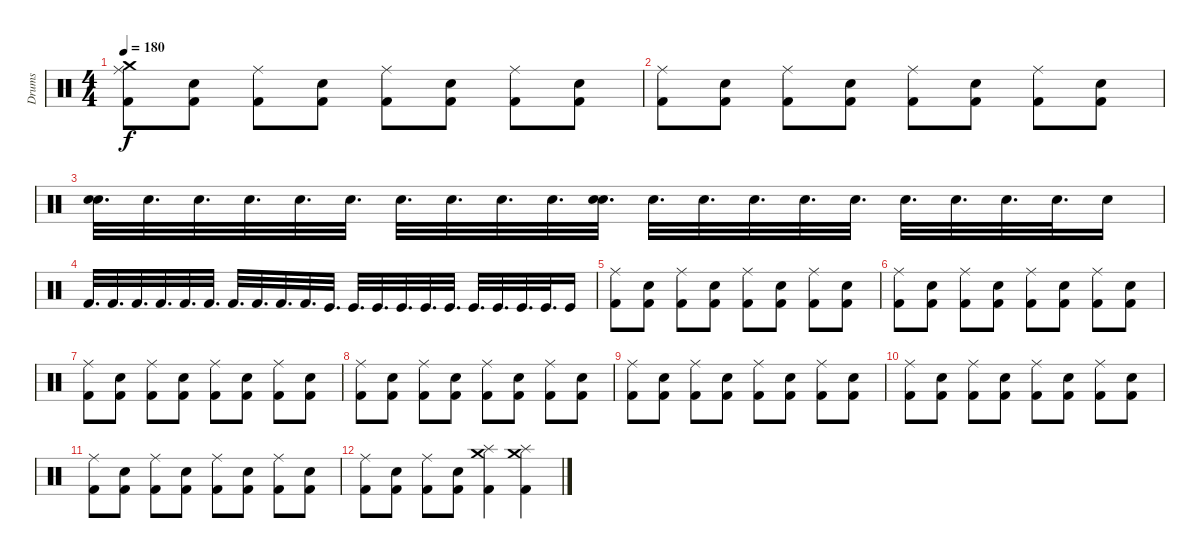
\track ("Drums" "Drums") {instrument percussion}
\staff {score}
\articulation defaults
\ts (4 4)
\tempo 180
\clef neutral
\ks c
("Crash medium (hit)" "Ride (middle)" "Kick (hit) 2").8{dy f} ("Kick (hit) 2" "Electric Snare (hit)").8 ("Ride (middle)" "Kick (hit) 2").8 ("Kick (hit) 2" "Electric Snare (hit)").8 ("Ride (middle)" "Kick (hit) 2").8 ("Kick (hit) 2" "Electric Snare (hit)").8 ("Ride (middle)" "Kick (hit) 2").8 ("Kick (hit) 2" "Electric Snare (hit)").8 |
("Ride (middle)" "Kick (hit) 2").8 ("Kick (hit) 2" "Electric Snare (hit)").8 ("Ride (middle)" "Kick (hit) 2").8 ("Kick (hit) 2" "Electric Snare (hit)").8 ("Ride (middle)" "Kick (hit) 2").8 ("Kick (hit) 2" "Electric Snare (hit)").8 ("Ride (middle)" "Kick (hit) 2").8 ("Kick (hit) 2" "Electric Snare (hit)").8 |
("Snare (hit) 2" "Electric Snare (hit)").32{d} "Electric Snare (hit)".32{d} "Electric Snare (hit)".32{d} "Electric Snare (hit)".32{d} "Electric Snare (hit)".32{d} "Electric Snare (hit)".32{d} "Electric Snare (hit)".32{d} "Electric Snare (hit)".32{d} "Electric Snare (hit)".32{d} "Electric Snare (hit)".32{d} ("Snare (hit) 2" "Electric Snare (hit)").32{d} "Electric Snare (hit)".32{d} "Electric Snare (hit)".32{d} "Electric Snare (hit)".32{d} "Electric Snare (hit)".32{d} "Electric Snare (hit)".32{d} "Electric Snare (hit)".32{d} "Electric Snare (hit)".32{d} "Electric Snare (hit)".32{d} "Electric Snare (hit)".32{d} "Electric Snare (hit)".16 |
"Kick (hit) 2".32{d} "Kick (hit) 2".32{d} "Kick (hit) 2".32{d} "Kick (hit) 2".32{d} "Kick (hit) 2".32{d} "Kick (hit) 2".32{d} "Kick (hit) 2".32{d} "Kick (hit) 2".32{d} "Kick (hit) 2".32{d} "Kick (hit) 2".32{d} "Kick (hit)".32{d} "Kick (hit)".32{d} "Kick (hit)".32{d} "Kick (hit)".32{d} "Kick (hit)".32{d} "Kick (hit)".32{d} "Kick (hit)".32{d} "Kick (hit)".32{d} "Kick (hit)".32{d} "Kick (hit)".32{d} "Kick (hit)".16 |
("Ride (middle)" "Kick (hit) 2").8 ("Kick (hit) 2" "Electric Snare (hit)").8 ("Ride (middle)" "Kick (hit) 2").8 ("Kick (hit) 2" "Electric Snare (hit)").8 ("Ride (middle)" "Kick (hit) 2").8 ("Kick (hit) 2" "Electric Snare (hit)").8 ("Ride (middle)" "Kick (hit) 2").8 ("Kick (hit) 2" "Electric Snare (hit)").8 |
("Ride (middle)" "Kick (hit) 2").8 ("Kick (hit) 2" "Electric Snare (hit)").8 ("Ride (middle)" "Kick (hit) 2").8 ("Kick (hit) 2" "Electric Snare (hit)").8 ("Ride (middle)" "Kick (hit) 2").8 ("Kick (hit) 2" "Electric Snare (hit)").8 ("Ride (middle)" "Kick (hit) 2").8 ("Kick (hit) 2" "Electric Snare (hit)").8 |
("Ride (middle)" "Kick (hit) 2").8 ("Kick (hit) 2" "Electric Snare (hit)").8 ("Ride (middle)" "Kick (hit) 2").8 ("Kick (hit) 2" "Electric Snare (hit)").8 ("Ride (middle)" "Kick (hit) 2").8 ("Kick (hit) 2" "Electric Snare (hit)").8 ("Ride (middle)" "Kick (hit) 2").8 ("Kick (hit) 2" "Electric Snare (hit)").8 |
("Ride (middle)" "Kick (hit) 2").8 ("Kick (hit) 2" "Electric Snare (hit)").8 ("Ride (middle)" "Kick (hit) 2").8 ("Kick (hit) 2" "Electric Snare (hit)").8 ("Ride (middle)" "Kick (hit) 2").8 ("Kick (hit) 2" "Electric Snare (hit)").8 ("Ride (middle)" "Kick (hit) 2").8 ("Kick (hit) 2" "Electric Snare (hit)").8 |
("Ride (middle)" "Kick (hit) 2").8 ("Kick (hit) 2" "Electric Snare (hit)").8 ("Ride (middle)" "Kick (hit) 2").8 ("Kick (hit) 2" "Electric Snare (hit)").8 ("Ride (middle)" "Kick (hit) 2").8 ("Kick (hit) 2" "Electric Snare (hit)").8 ("Ride (middle)" "Kick (hit) 2").8 ("Kick (hit) 2" "Electric Snare (hit)").8 |
("Ride (middle)" "Kick (hit) 2").8 ("Kick (hit) 2" "Electric Snare (hit)").8 ("Ride (middle)" "Kick (hit) 2").8 ("Kick (hit) 2" "Electric Snare (hit)").8 ("Ride (middle)" "Kick (hit) 2").8 ("Kick (hit) 2" "Electric Snare (hit)").8 ("Ride (middle)" "Kick (hit) 2").8 ("Kick (hit) 2" "Electric Snare (hit)").8 |
("Ride (middle)" "Kick (hit) 2").8 ("Kick (hit) 2" "Electric Snare (hit)").8 ("Ride (middle)" "Kick (hit) 2").8 ("Kick (hit) 2" "Electric Snare (hit)").8 ("Ride (middle)" "Kick (hit) 2").8 ("Kick (hit) 2" "Electric Snare (hit)").8 ("Ride (middle)" "Kick (hit) 2").8 ("Kick (hit) 2" "Electric Snare (hit)").8 |
("Ride (middle)" "Kick (hit) 2").8 ("Kick (hit) 2" "Electric Snare (hit)").8 ("Ride (middle)" "Kick (hit) 2").8 ("Kick (hit) 2" "Electric Snare (hit)").8 ("Splash (hit)" "Crash medium (hit)" "Kick (hit) 2").4 ("Splash (hit)" "Crash medium (hit)" "Kick (hit) 2").4
